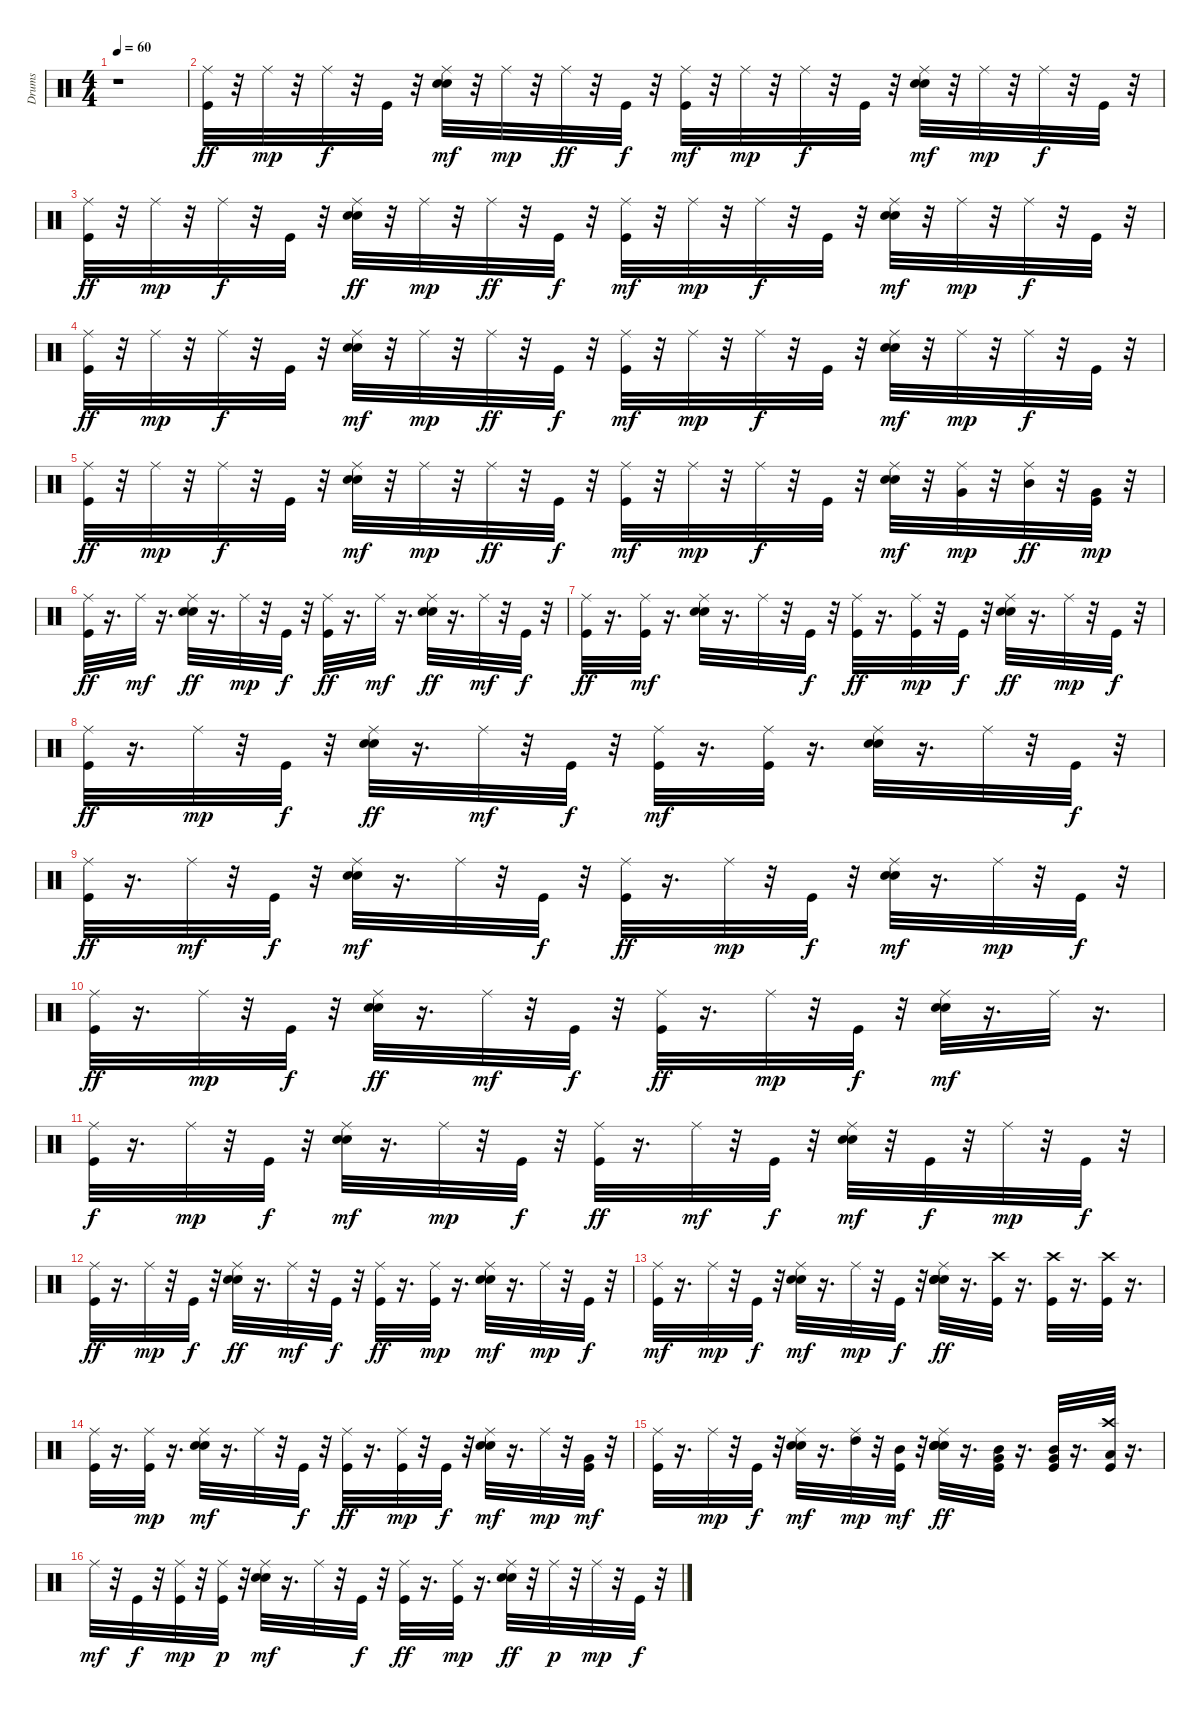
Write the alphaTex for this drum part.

\track ("Drums" "Drums") {instrument percussion}
\staff {score}
\articulation defaults
\ts (4 4)
\tempo 60
\clef neutral
\ks c
r.1{dy ff} |
("Ride (middle)" "Kick (hit)").32 r.32 "Ride (middle)".32{dy mp} r.32 "Ride (middle)".32{dy f} r.32 "Kick (hit)".32 r.32 ("Ride (middle)" "Electric Snare (hit)" "Snare (hit) 2").32{dy mf} r.32 "Ride (middle)".32{dy mp} r.32 "Ride (middle)".32{dy ff} r.32 "Kick (hit)".32{dy f} r.32 ("Kick (hit)" "Ride (middle)").32{dy mf} r.32 "Ride (middle)".32{dy mp} r.32 "Ride (middle)".32{dy f} r.32 "Kick (hit)".32 r.32 ("Snare (hit) 2" "Electric Snare (hit)" "Ride (middle)").32{dy mf} r.32 "Ride (middle)".32{dy mp} r.32 "Ride (middle)".32{dy f} r.32 "Kick (hit)".32 r.32 |
("Ride (middle)" "Kick (hit)").32{dy ff} r.32 "Ride (middle)".32{dy mp} r.32 "Ride (middle)".32{dy f} r.32 "Kick (hit)".32 r.32 ("Ride (middle)" "Snare (hit) 2" "Electric Snare (hit)").32{dy ff} r.32 "Ride (middle)".32{dy mp} r.32 "Ride (middle)".32{dy ff} r.32 "Kick (hit)".32{dy f} r.32 ("Kick (hit)" "Ride (middle)").32{dy mf} r.32 "Ride (middle)".32{dy mp} r.32 "Ride (middle)".32{dy f} r.32 "Kick (hit)".32 r.32 ("Snare (hit) 2" "Electric Snare (hit)" "Ride (middle)").32{dy mf} r.32 "Ride (middle)".32{dy mp} r.32 "Ride (middle)".32{dy f} r.32 "Kick (hit)".32 r.32 |
("Kick (hit)" "Ride (middle)").32{dy ff} r.32 "Ride (middle)".32{dy mp} r.32 "Ride (middle)".32{dy f} r.32 "Kick (hit)".32 r.32 ("Electric Snare (hit)" "Snare (hit) 2" "Ride (middle)").32{dy mf} r.32 "Ride (middle)".32{dy mp} r.32 "Ride (middle)".32{dy ff} r.32 "Kick (hit)".32{dy f} r.32 ("Kick (hit)" "Ride (middle)").32{dy mf} r.32 "Ride (middle)".32{dy mp} r.32 "Ride (middle)".32{dy f} r.32 "Kick (hit)".32 r.32 ("Snare (hit) 2" "Electric Snare (hit)" "Ride (middle)").32{dy mf} r.32 "Ride (middle)".32{dy mp} r.32 "Ride (middle)".32{dy f} r.32 "Kick (hit)".32 r.32 |
("Ride (middle)" "Kick (hit)").32{dy ff} r.32 "Ride (middle)".32{dy mp} r.32 "Ride (middle)".32{dy f} r.32 "Kick (hit)".32 r.32 ("Ride (middle)" "Electric Snare (hit)" "Snare (hit) 2").32{dy mf} r.32 "Ride (middle)".32{dy mp} r.32 "Ride (middle)".32{dy ff} r.32 "Kick (hit)".32{dy f} r.32 ("Kick (hit)" "Ride (middle)").32{dy mf} r.32 "Ride (middle)".32{dy mp} r.32 "Ride (middle)".32{dy f} r.32 "Kick (hit)".32 r.32 ("Snare (hit) 2" "Electric Snare (hit)" "Ride (middle)").32{dy mf} r.32 ("Very Low Tom (hit)" "Ride (middle)").32{dy mp} r.32 ("Ride (middle)" "Mid Tom (hit)").32{dy ff} r.32 ("Very Low Tom (hit)" "Kick (hit)").32{dy mp} r.32 |
("Kick (hit)" "Ride (middle)").32{dy ff} r.16{d} "Ride (middle)".32{dy mf} r.16{d} ("Snare (hit) 2" "Electric Snare (hit)" "Ride (middle)").32{dy ff} r.16{d} "Ride (middle)".32{dy mp} r.32 "Kick (hit)".32{dy f} r.32 ("Ride (middle)" "Kick (hit)").32{dy ff} r.16{d} "Ride (middle)".32{dy mf} r.16{d} ("Ride (middle)" "Snare (hit) 2" "Electric Snare (hit)").32{dy ff} r.16{d} "Ride (middle)".32{dy mf} r.32 "Kick (hit)".32{dy f} r.32 |
("Ride (middle)" "Kick (hit)").32{dy ff} r.16{d} ("Ride (middle)" "Kick (hit)").32{dy mf} r.16{d} ("Electric Snare (hit)" "Snare (hit) 2" "Ride (middle)").32 r.16{d} "Ride (middle)".32 r.32 "Kick (hit)".32{dy f} r.32 ("Ride (middle)" "Kick (hit)").32{dy ff} r.16{d} ("Ride (middle)" "Kick (hit)").32{dy mp} r.32 "Kick (hit)".32{dy f} r.32 ("Ride (middle)" "Snare (hit) 2" "Electric Snare (hit)").32{dy ff} r.16{d} "Ride (middle)".32{dy mp} r.32 "Kick (hit)".32{dy f} r.32 |
("Ride (middle)" "Kick (hit)").32{dy ff} r.16{d} "Ride (middle)".32{dy mp} r.32 "Kick (hit)".32{dy f} r.32 ("Ride (middle)" "Snare (hit) 2" "Electric Snare (hit)").32{dy ff} r.16{d} "Ride (middle)".32{dy mf} r.32 "Kick (hit)".32{dy f} r.32 ("Ride (middle)" "Kick (hit)").32{dy mf} r.16{d} ("Kick (hit)" "Ride (middle)").32 r.16{d} ("Electric Snare (hit)" "Snare (hit) 2" "Ride (middle)").32 r.16{d} "Ride (middle)".32 r.32 "Kick (hit)".32{dy f} r.32 |
("Ride (middle)" "Kick (hit)").32{dy ff} r.16{d} "Ride (middle)".32{dy mf} r.32 "Kick (hit)".32{dy f} r.32 ("Electric Snare (hit)" "Ride (middle)" "Snare (hit) 2").32{dy mf} r.16{d} "Ride (middle)".32 r.32 "Kick (hit)".32{dy f} r.32 ("Ride (middle)" "Kick (hit)").32{dy ff} r.16{d} "Ride (middle)".32{dy mp} r.32 "Kick (hit)".32{dy f} r.32 ("Ride (middle)" "Electric Snare (hit)" "Snare (hit) 2").32{dy mf} r.16{d} "Ride (middle)".32{dy mp} r.32 "Kick (hit)".32{dy f} r.32 |
("Kick (hit)" "Ride (middle)").32{dy ff} r.16{d} "Ride (middle)".32{dy mp} r.32 "Kick (hit)".32{dy f} r.32 ("Snare (hit) 2" "Electric Snare (hit)" "Ride (middle)").32{dy ff} r.16{d} "Ride (middle)".32{dy mf} r.32 "Kick (hit)".32{dy f} r.32 ("Ride (middle)" "Kick (hit)").32{dy ff} r.16{d} "Ride (middle)".32{dy mp} r.32 "Kick (hit)".32{dy f} r.32 ("Ride (middle)" "Electric Snare (hit)" "Snare (hit) 2").32{dy mf} r.16{d} "Ride (middle)".32 r.16{d} |
("Ride (middle)" "Kick (hit)").32{dy f} r.16{d} "Ride (middle)".32{dy mp} r.32 "Kick (hit)".32{dy f} r.32 ("Electric Snare (hit)" "Snare (hit) 2" "Ride (middle)").32{dy mf} r.16{d} "Ride (middle)".32{dy mp} r.32 "Kick (hit)".32{dy f} r.32 ("Kick (hit)" "Ride (middle)").32{dy ff} r.16{d} "Ride (middle)".32{dy mf} r.32 "Kick (hit)".32{dy f} r.32 ("Electric Snare (hit)" "Ride (middle)" "Snare (hit) 2").32{dy mf} r.32 "Kick (hit)".32{dy f} r.32 "Ride (middle)".32{dy mp} r.32 "Kick (hit)".32{dy f} r.32 |
("Kick (hit)" "Ride (middle)").32{dy ff} r.16{d} "Ride (middle)".32{dy mp} r.32 "Kick (hit)".32{dy f} r.32 ("Ride (middle)" "Snare (hit) 2" "Electric Snare (hit)").32{dy ff} r.16{d} "Ride (middle)".32{dy mf} r.32 "Kick (hit)".32{dy f} r.32 ("Ride (middle)" "Kick (hit)").32{dy ff} r.16{d} ("Kick (hit)" "Ride (middle)").32{dy mp} r.16{d} ("Electric Snare (hit)" "Snare (hit) 2" "Ride (middle)").32{dy mf} r.16{d} "Ride (middle)".32{dy mp} r.32 "Kick (hit)".32{dy f} r.32 |
("Kick (hit)" "Ride (middle)").32{dy mf} r.16{d} "Ride (middle)".32{dy mp} r.32 "Kick (hit)".32{dy f} r.32 ("Ride (middle)" "Electric Snare (hit)" "Snare (hit) 2").32{dy mf} r.16{d} "Ride (middle)".32{dy mp} r.32 "Kick (hit)".32{dy f} r.32 ("Snare (hit) 2" "Electric Snare (hit)" "Ride (middle)" "Snare (hit) 2" "Electric Snare (hit)").32{dy ff} r.16{d} ("Crash high (hit)" "Kick (hit)").32 r.16{d} ("Crash high (hit)" "Kick (hit)").32 r.16{d} ("Crash high (hit)" "Kick (hit)").32 r.16{d} |
("Ride (middle)" "Kick (hit)").32 r.16{d} ("Kick (hit)" "Ride (middle)").32{dy mp} r.16{d} ("Ride (middle)" "Electric Snare (hit)" "Snare (hit) 2").32{dy mf} r.16{d} "Ride (middle)".32 r.32 "Kick (hit)".32{dy f} r.32 ("Ride (middle)" "Kick (hit)").32{dy ff} r.16{d} ("Kick (hit)" "Ride (middle)").32{dy mp} r.32 "Kick (hit)".32{dy f} r.32 ("Ride (middle)" "Electric Snare (hit)" "Snare (hit) 2").32{dy mf} r.16{d} "Ride (middle)".32{dy mp} r.32 ("Very Low Tom (hit)" "Kick (hit)").32{dy mf} r.32 |
("Kick (hit)" "Ride (middle)").32 r.16{d} "Ride (middle)".32{dy mp} r.32 "Kick (hit)".32{dy f} r.32 ("Ride (middle)" "Electric Snare (hit)" "Snare (hit) 2").32{dy mf} r.16{d} ("High Tom (hit)" "Ride (middle)").32{dy mp} r.32 ("Mid Tom (hit)" "Kick (hit)").32{dy mf} r.32 ("Electric Snare (hit)" "Snare (hit) 2" "Ride (middle)" "Snare (hit) 2" "Electric Snare (hit)").32{dy ff} r.16{d} ("Very Low Tom (hit)" "Kick (hit)" "Mid Tom (hit)").32 r.16{d} ("Very Low Tom (hit)" "Kick (hit)" "Mid Tom (hit)").32 r.16{d} ("Low Floor Tom (hit)" "Crash high (hit)" "Kick (hit)").32 r.16{d} |
"Ride (middle)".32{dy mf} r.32 "Kick (hit)".32{dy f} r.32 ("Ride (middle)" "Kick (hit)").32{dy mp} r.32 ("Ride (middle)" "Kick (hit)").32{dy p} r.32 ("Electric Snare (hit)" "Snare (hit) 2" "Ride (middle)").32{dy mf} r.16{d} "Ride (middle)".32 r.32 "Kick (hit)".32{dy f} r.32 ("Ride (middle)" "Kick (hit)").32{dy ff} r.16{d} ("Kick (hit)" "Ride (middle)").32{dy mp} r.16{d} ("Ride (middle)" "Snare (hit) 2" "Electric Snare (hit)").32{dy ff} r.32 "Ride (middle)".32{dy p} r.32 "Ride (middle)".32{dy mp} r.32 "Kick (hit)".32{dy f} r.32
